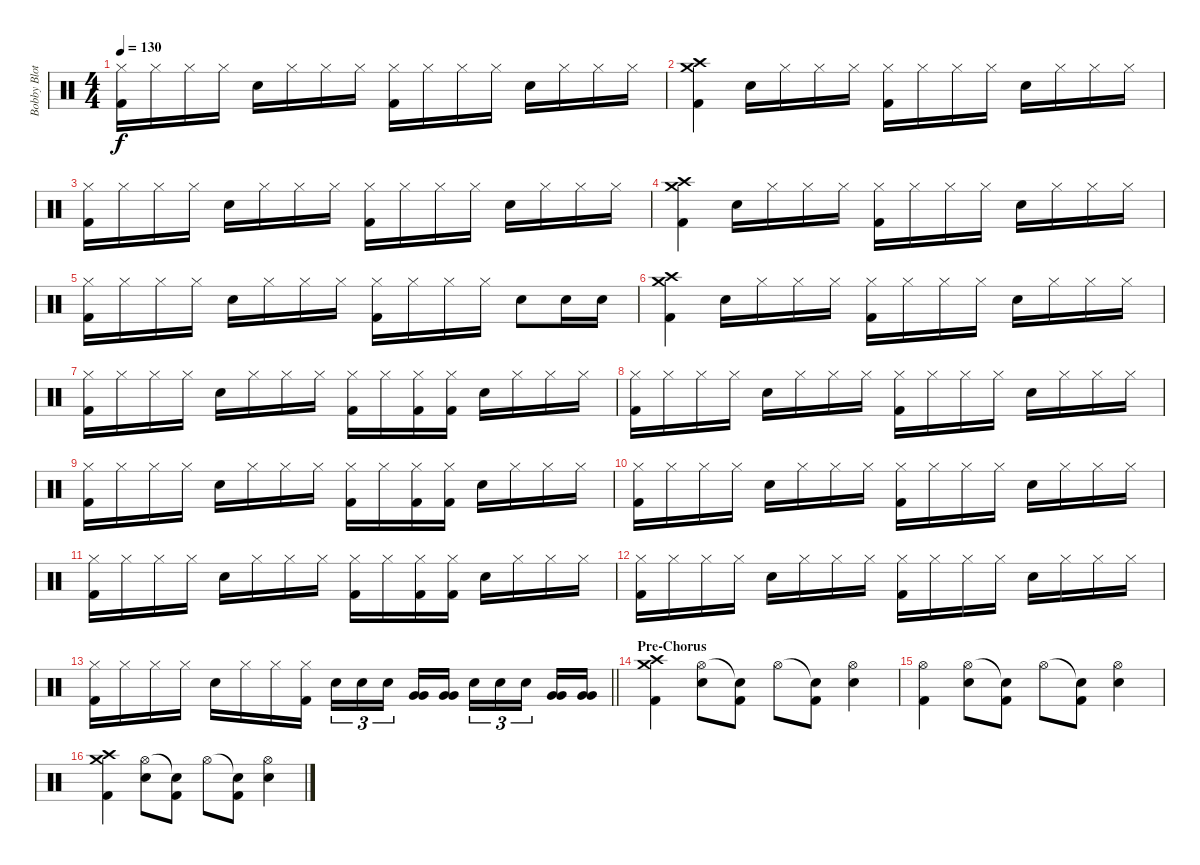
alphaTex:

\track ("Bobby Blotzer - Drums" "Bobby Blot") {instrument percussion}
\staff {score}
\articulation defaults
\ts (4 4)
\tempo 130
\clef neutral
\ks c
("Hi-Hat (closed)" "Kick (hit) 2").16{dy f} "Hi-Hat (closed)".16 "Hi-Hat (closed)".16 "Hi-Hat (closed)".16 "Snare (hit) 2".16 "Hi-Hat (closed)".16 "Hi-Hat (closed)".16 "Hi-Hat (closed)".16 ("Hi-Hat (closed)" "Kick (hit) 2").16 "Hi-Hat (closed)".16 "Hi-Hat (closed)".16 "Hi-Hat (closed)".16 "Snare (hit) 2".16 "Hi-Hat (closed)".16 "Hi-Hat (closed)".16 "Hi-Hat (closed)".16 |
("Crash medium (hit)" "Crash high (hit)" "Kick (hit) 2").4 "Snare (hit) 2".16 "Hi-Hat (closed)".16 "Hi-Hat (closed)".16 "Hi-Hat (closed)".16 ("Hi-Hat (closed)" "Kick (hit) 2").16 "Hi-Hat (closed)".16 "Hi-Hat (closed)".16 "Hi-Hat (closed)".16 "Snare (hit) 2".16 "Hi-Hat (closed)".16 "Hi-Hat (closed)".16 "Hi-Hat (closed)".16 |
("Hi-Hat (closed)" "Kick (hit) 2").16 "Hi-Hat (closed)".16 "Hi-Hat (closed)".16 "Hi-Hat (closed)".16 "Snare (hit) 2".16 "Hi-Hat (closed)".16 "Hi-Hat (closed)".16 "Hi-Hat (closed)".16 ("Hi-Hat (closed)" "Kick (hit) 2").16 "Hi-Hat (closed)".16 "Hi-Hat (closed)".16 "Hi-Hat (closed)".16 "Snare (hit) 2".16 "Hi-Hat (closed)".16 "Hi-Hat (closed)".16 "Hi-Hat (closed)".16 |
("Crash medium (hit)" "Crash high (hit)" "Kick (hit) 2").4 "Snare (hit) 2".16 "Hi-Hat (closed)".16 "Hi-Hat (closed)".16 "Hi-Hat (closed)".16 ("Hi-Hat (closed)" "Kick (hit) 2").16 "Hi-Hat (closed)".16 "Hi-Hat (closed)".16 "Hi-Hat (closed)".16 "Snare (hit) 2".16 "Hi-Hat (closed)".16 "Hi-Hat (closed)".16 "Hi-Hat (closed)".16 |
("Hi-Hat (closed)" "Kick (hit) 2").16 "Hi-Hat (closed)".16 "Hi-Hat (closed)".16 "Hi-Hat (closed)".16 "Snare (hit) 2".16 "Hi-Hat (closed)".16 "Hi-Hat (closed)".16 "Hi-Hat (closed)".16 ("Hi-Hat (closed)" "Kick (hit) 2").16 "Hi-Hat (closed)".16 "Hi-Hat (closed)".16 "Hi-Hat (closed)".16 "Snare (hit) 2".8 "Snare (hit) 2".16 "Snare (hit) 2".16 |
("Crash medium (hit)" "Crash high (hit)" "Kick (hit) 2").4 "Snare (hit) 2".16 "Hi-Hat (closed)".16 "Hi-Hat (closed)".16 "Hi-Hat (closed)".16 ("Hi-Hat (closed)" "Kick (hit) 2").16 "Hi-Hat (closed)".16 "Hi-Hat (closed)".16 "Hi-Hat (closed)".16 "Snare (hit) 2".16 "Hi-Hat (closed)".16 "Hi-Hat (closed)".16 "Hi-Hat (closed)".16 |
("Hi-Hat (closed)" "Kick (hit) 2").16 "Hi-Hat (closed)".16 "Hi-Hat (closed)".16 "Hi-Hat (closed)".16 "Snare (hit) 2".16 "Hi-Hat (closed)".16 "Hi-Hat (closed)".16 "Hi-Hat (closed)".16 ("Hi-Hat (closed)" "Kick (hit) 2").16 "Hi-Hat (closed)".16 ("Hi-Hat (closed)" "Kick (hit) 2").16 ("Hi-Hat (closed)" "Kick (hit) 2").16 "Snare (hit) 2".16 "Hi-Hat (closed)".16 "Hi-Hat (closed)".16 "Hi-Hat (closed)".16 |
("Hi-Hat (closed)" "Kick (hit) 2").16 "Hi-Hat (closed)".16 "Hi-Hat (closed)".16 "Hi-Hat (closed)".16 "Snare (hit) 2".16 "Hi-Hat (closed)".16 "Hi-Hat (closed)".16 "Hi-Hat (closed)".16 ("Hi-Hat (closed)" "Kick (hit) 2").16 "Hi-Hat (closed)".16 "Hi-Hat (closed)".16 "Hi-Hat (closed)".16 "Snare (hit) 2".16 "Hi-Hat (closed)".16 "Hi-Hat (closed)".16 "Hi-Hat (closed)".16 |
("Hi-Hat (closed)" "Kick (hit) 2").16 "Hi-Hat (closed)".16 "Hi-Hat (closed)".16 "Hi-Hat (closed)".16 "Snare (hit) 2".16 "Hi-Hat (closed)".16 "Hi-Hat (closed)".16 "Hi-Hat (closed)".16 ("Hi-Hat (closed)" "Kick (hit) 2").16 "Hi-Hat (closed)".16 ("Hi-Hat (closed)" "Kick (hit) 2").16 ("Hi-Hat (closed)" "Kick (hit) 2").16 "Snare (hit) 2".16 "Hi-Hat (closed)".16 "Hi-Hat (closed)".16 "Hi-Hat (closed)".16 |
("Hi-Hat (closed)" "Kick (hit) 2").16 "Hi-Hat (closed)".16 "Hi-Hat (closed)".16 "Hi-Hat (closed)".16 "Snare (hit) 2".16 "Hi-Hat (closed)".16 "Hi-Hat (closed)".16 "Hi-Hat (closed)".16 ("Hi-Hat (closed)" "Kick (hit) 2").16 "Hi-Hat (closed)".16 "Hi-Hat (closed)".16 "Hi-Hat (closed)".16 "Snare (hit) 2".16 "Hi-Hat (closed)".16 "Hi-Hat (closed)".16 "Hi-Hat (closed)".16 |
("Hi-Hat (closed)" "Kick (hit) 2").16 "Hi-Hat (closed)".16 "Hi-Hat (closed)".16 "Hi-Hat (closed)".16 "Snare (hit) 2".16 "Hi-Hat (closed)".16 "Hi-Hat (closed)".16 "Hi-Hat (closed)".16 ("Hi-Hat (closed)" "Kick (hit) 2").16 "Hi-Hat (closed)".16 ("Hi-Hat (closed)" "Kick (hit) 2").16 ("Hi-Hat (closed)" "Kick (hit) 2").16 "Snare (hit) 2".16 "Hi-Hat (closed)".16 "Hi-Hat (closed)".16 "Hi-Hat (closed)".16 |
("Hi-Hat (closed)" "Kick (hit) 2").16 "Hi-Hat (closed)".16 "Hi-Hat (closed)".16 "Hi-Hat (closed)".16 "Snare (hit) 2".16 "Hi-Hat (closed)".16 "Hi-Hat (closed)".16 "Hi-Hat (closed)".16 ("Hi-Hat (closed)" "Kick (hit) 2").16 "Hi-Hat (closed)".16 "Hi-Hat (closed)".16 "Hi-Hat (closed)".16 "Snare (hit) 2".16 "Hi-Hat (closed)".16 "Hi-Hat (closed)".16 "Hi-Hat (closed)".16 |
\barLineRight lightlight
("Hi-Hat (closed)" "Kick (hit) 2").16 "Hi-Hat (closed)".16 "Hi-Hat (closed)".16 "Hi-Hat (closed)".16 "Snare (hit) 2".16 "Hi-Hat (closed)".16 "Hi-Hat (closed)".16 ("Hi-Hat (closed)" "Kick (hit) 2").16 "Snare (hit) 2".16{tu (3 2)} "Snare (hit) 2".16{tu (3 2)} "Snare (hit) 2".16{tu (3 2) beam splitsecondary} ("Very Low Tom (hit)" "Very Low Tom (hit)").16 ("Very Low Tom (hit)" "Very Low Tom (hit)").16 "Snare (hit) 2".16{tu (3 2)} "Snare (hit) 2".16{tu (3 2)} "Snare (hit) 2".16{tu (3 2) beam splitsecondary} ("Very Low Tom (hit)" "Very Low Tom (hit)").16 ("Very Low Tom (hit)" "Very Low Tom (hit)").16 |
\section ("" "Pre-Chorus")
("Crash medium (hit)" "Crash high (hit)" "Kick (hit) 2").4 ("Hi-Hat (open)" "Snare (hit) 2").8 ("Snare (hit)"{t} "Kick (hit) 2").8 "Hi-Hat (open)".8 ("Snare (hit)"{t} "Kick (hit) 2").8 ("Hi-Hat (open)" "Snare (hit) 2").4 |
("Hi-Hat (open)" "Kick (hit) 2").4 ("Hi-Hat (open)" "Snare (hit) 2").8 ("Snare (hit)"{t} "Kick (hit) 2").8 "Hi-Hat (open)".8 ("Snare (hit)"{t} "Kick (hit) 2").8 ("Hi-Hat (open)" "Snare (hit) 2").4 |
("Crash medium (hit)" "Crash high (hit)" "Kick (hit) 2").4 ("Hi-Hat (open)" "Snare (hit) 2").8 ("Snare (hit)"{t} "Kick (hit) 2").8 "Hi-Hat (open)".8 ("Snare (hit)"{t} "Kick (hit) 2").8 ("Hi-Hat (open)" "Snare (hit) 2").4
